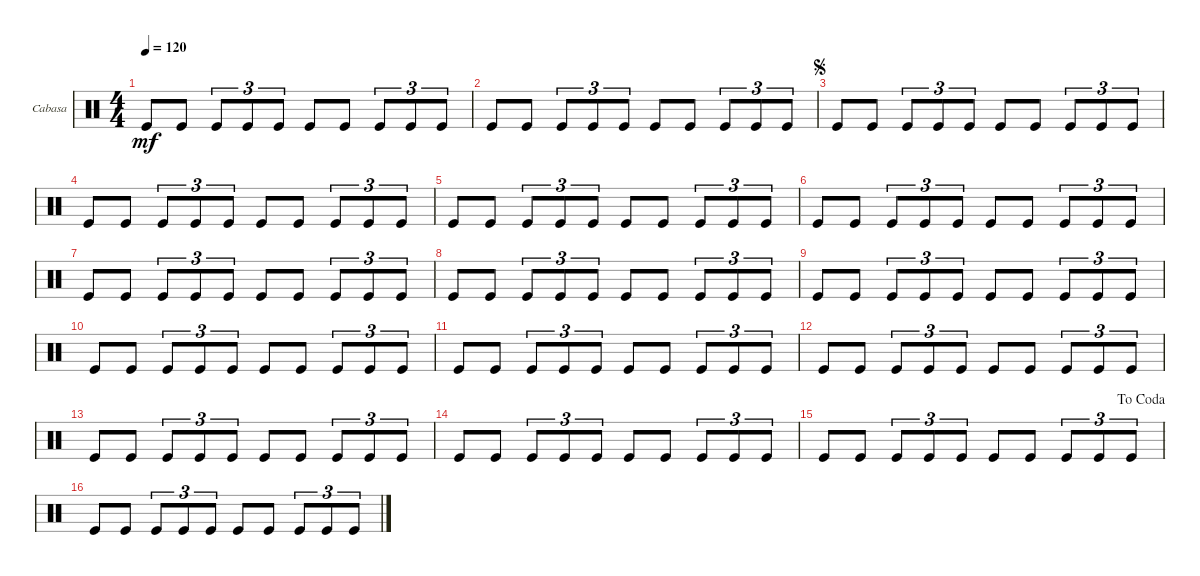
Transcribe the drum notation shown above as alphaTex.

\bracketExtendMode groupsimilarinstruments
\firstSystemTrackNameOrientation horizontal
\otherSystemsTrackNameOrientation horizontal
\track ("Cabasa" "Cabasa") {instrument percussion}
\staff {score}
\articulation defaults
\ts (4 4)
\tempo 120
\clef neutral
\ks c "Kick (hit)".8{dy mf} "Kick (hit)".8 "Kick (hit)".8{tu (3 2)} "Kick (hit)".8{tu (3 2)} "Kick (hit)".8{tu (3 2)} "Kick (hit)".8 "Kick (hit)".8 "Kick (hit)".8{tu (3 2)} "Kick (hit)".8{tu (3 2)} "Kick (hit)".8{tu (3 2)}
|
"Kick (hit)".8 "Kick (hit)".8 "Kick (hit)".8{tu (3 2)} "Kick (hit)".8{tu (3 2)} "Kick (hit)".8{tu (3 2)} "Kick (hit)".8 "Kick (hit)".8 "Kick (hit)".8{tu (3 2)} "Kick (hit)".8{tu (3 2)} "Kick (hit)".8{tu (3 2)} |
\jump segno "Kick (hit)".8 "Kick (hit)".8 "Kick (hit)".8{tu (3 2)} "Kick (hit)".8{tu (3 2)} "Kick (hit)".8{tu (3 2)} "Kick (hit)".8 "Kick (hit)".8 "Kick (hit)".8{tu (3 2)} "Kick (hit)".8{tu (3 2)} "Kick (hit)".8{tu (3 2)}
|
"Kick (hit)".8 "Kick (hit)".8 "Kick (hit)".8{tu (3 2)} "Kick (hit)".8{tu (3 2)} "Kick (hit)".8{tu (3 2)} "Kick (hit)".8 "Kick (hit)".8 "Kick (hit)".8{tu (3 2)} "Kick (hit)".8{tu (3 2)} "Kick (hit)".8{tu (3 2)} |
"Kick (hit)".8 "Kick (hit)".8 "Kick (hit)".8{tu (3 2)} "Kick (hit)".8{tu (3 2)} "Kick (hit)".8{tu (3 2)} "Kick (hit)".8 "Kick (hit)".8 "Kick (hit)".8{tu (3 2)} "Kick (hit)".8{tu (3 2)} "Kick (hit)".8{tu (3 2)} |
"Kick (hit)".8 "Kick (hit)".8 "Kick (hit)".8{tu (3 2)} "Kick (hit)".8{tu (3 2)} "Kick (hit)".8{tu (3 2)} "Kick (hit)".8 "Kick (hit)".8 "Kick (hit)".8{tu (3 2)} "Kick (hit)".8{tu (3 2)} "Kick (hit)".8{tu (3 2)} |
"Kick (hit)".8 "Kick (hit)".8 "Kick (hit)".8{tu (3 2)} "Kick (hit)".8{tu (3 2)} "Kick (hit)".8{tu (3 2)} "Kick (hit)".8 "Kick (hit)".8 "Kick (hit)".8{tu (3 2)} "Kick (hit)".8{tu (3 2)} "Kick (hit)".8{tu (3 2)} |
"Kick (hit)".8 "Kick (hit)".8 "Kick (hit)".8{tu (3 2)} "Kick (hit)".8{tu (3 2)} "Kick (hit)".8{tu (3 2)} "Kick (hit)".8 "Kick (hit)".8 "Kick (hit)".8{tu (3 2)} "Kick (hit)".8{tu (3 2)} "Kick (hit)".8{tu (3 2)} |
"Kick (hit)".8 "Kick (hit)".8 "Kick (hit)".8{tu (3 2)} "Kick (hit)".8{tu (3 2)} "Kick (hit)".8{tu (3 2)} "Kick (hit)".8 "Kick (hit)".8 "Kick (hit)".8{tu (3 2)} "Kick (hit)".8{tu (3 2)} "Kick (hit)".8{tu (3 2)} |
"Kick (hit)".8 "Kick (hit)".8 "Kick (hit)".8{tu (3 2)} "Kick (hit)".8{tu (3 2)} "Kick (hit)".8{tu (3 2)} "Kick (hit)".8 "Kick (hit)".8 "Kick (hit)".8{tu (3 2)} "Kick (hit)".8{tu (3 2)} "Kick (hit)".8{tu (3 2)} |
"Kick (hit)".8 "Kick (hit)".8 "Kick (hit)".8{tu (3 2)} "Kick (hit)".8{tu (3 2)} "Kick (hit)".8{tu (3 2)} "Kick (hit)".8 "Kick (hit)".8 "Kick (hit)".8{tu (3 2)} "Kick (hit)".8{tu (3 2)} "Kick (hit)".8{tu (3 2)} |
"Kick (hit)".8 "Kick (hit)".8 "Kick (hit)".8{tu (3 2)} "Kick (hit)".8{tu (3 2)} "Kick (hit)".8{tu (3 2)} "Kick (hit)".8 "Kick (hit)".8 "Kick (hit)".8{tu (3 2)} "Kick (hit)".8{tu (3 2)} "Kick (hit)".8{tu (3 2)} |
"Kick (hit)".8 "Kick (hit)".8 "Kick (hit)".8{tu (3 2)} "Kick (hit)".8{tu (3 2)} "Kick (hit)".8{tu (3 2)} "Kick (hit)".8 "Kick (hit)".8 "Kick (hit)".8{tu (3 2)} "Kick (hit)".8{tu (3 2)} "Kick (hit)".8{tu (3 2)} |
"Kick (hit)".8 "Kick (hit)".8 "Kick (hit)".8{tu (3 2)} "Kick (hit)".8{tu (3 2)} "Kick (hit)".8{tu (3 2)} "Kick (hit)".8 "Kick (hit)".8 "Kick (hit)".8{tu (3 2)} "Kick (hit)".8{tu (3 2)} "Kick (hit)".8{tu (3 2)} |
\jump dacoda "Kick (hit)".8 "Kick (hit)".8 "Kick (hit)".8{tu (3 2)} "Kick (hit)".8{tu (3 2)} "Kick (hit)".8{tu (3 2)} "Kick (hit)".8 "Kick (hit)".8 "Kick (hit)".8{tu (3 2)} "Kick (hit)".8{tu (3 2)} "Kick (hit)".8{tu (3 2)}
|
"Kick (hit)".8 "Kick (hit)".8 "Kick (hit)".8{tu (3 2)} "Kick (hit)".8{tu (3 2)} "Kick (hit)".8{tu (3 2)} "Kick (hit)".8 "Kick (hit)".8 "Kick (hit)".8{tu (3 2)} "Kick (hit)".8{tu (3 2)} "Kick (hit)".8{tu (3 2)}
